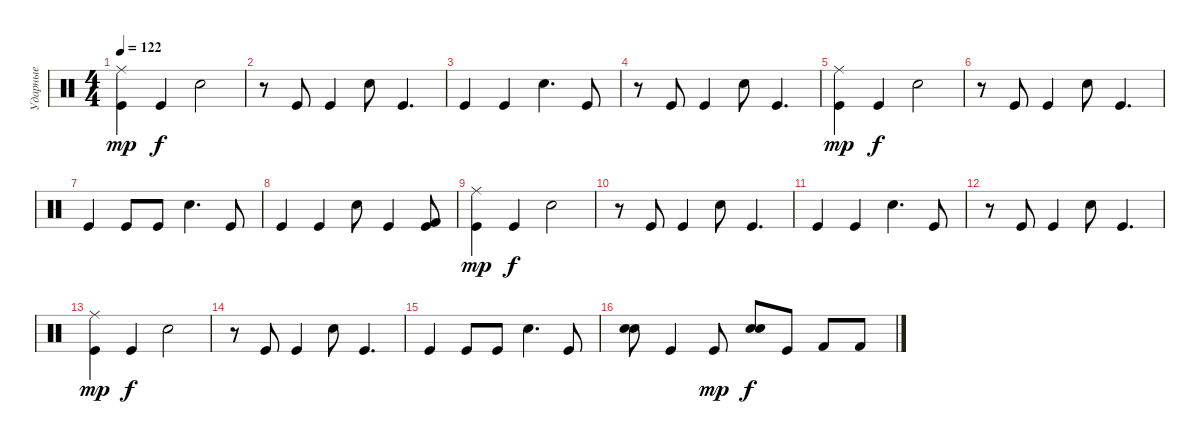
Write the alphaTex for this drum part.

\track ("Ударные" "Ударные") {instrument percussion}
\staff {score}
\articulation defaults
\ts (4 4)
\tempo 122
\clef neutral
\ks c
("Ride (middle)" "Kick (hit)").4{dy mp} "Kick (hit)".4{dy f} "Electric Snare (hit)".2 |
r.8 "Kick (hit)".8 "Kick (hit)".4 "Electric Snare (hit)".8 "Kick (hit)".4{d} |
"Kick (hit)".4 "Kick (hit)".4 "Electric Snare (hit)".4{d} "Kick (hit)".8 |
r.8 "Kick (hit)".8 "Kick (hit)".4 "Electric Snare (hit)".8 "Kick (hit)".4{d} |
("Ride (middle)" "Kick (hit)").4{dy mp} "Kick (hit)".4{dy f} "Electric Snare (hit)".2 |
r.8 "Kick (hit)".8 "Kick (hit)".4 "Electric Snare (hit)".8 "Kick (hit)".4{d} |
"Kick (hit)".4 "Kick (hit)".8 "Kick (hit)".8 "Electric Snare (hit)".4{d} "Kick (hit)".8 |
"Kick (hit)".4 "Kick (hit)".4 "Electric Snare (hit)".8 "Kick (hit)".4 ("Kick (hit)" "Kick (hit) 2").8 |
("Ride (middle)" "Kick (hit)").4{dy mp} "Kick (hit)".4{dy f} "Electric Snare (hit)".2 |
r.8 "Kick (hit)".8 "Kick (hit)".4 "Electric Snare (hit)".8 "Kick (hit)".4{d} |
"Kick (hit)".4 "Kick (hit)".4 "Electric Snare (hit)".4{d} "Kick (hit)".8 |
r.8 "Kick (hit)".8 "Kick (hit)".4 "Electric Snare (hit)".8 "Kick (hit)".4{d} |
("Ride (middle)" "Kick (hit)").4{dy mp} "Kick (hit)".4{dy f} "Electric Snare (hit)".2 |
r.8 "Kick (hit)".8 "Kick (hit)".4 "Electric Snare (hit)".8 "Kick (hit)".4{d} |
"Kick (hit)".4 "Kick (hit)".8 "Kick (hit)".8 "Electric Snare (hit)".4{d} "Kick (hit)".8 |
("Electric Snare (hit)" "Snare (hit) 2").8 "Kick (hit)".4 "Kick (hit)".8{dy mp} ("Electric Snare (hit)" "Snare (hit) 2").8{dy f} "Kick (hit)".8 "Kick (hit) 2".8 "Kick (hit) 2".8
